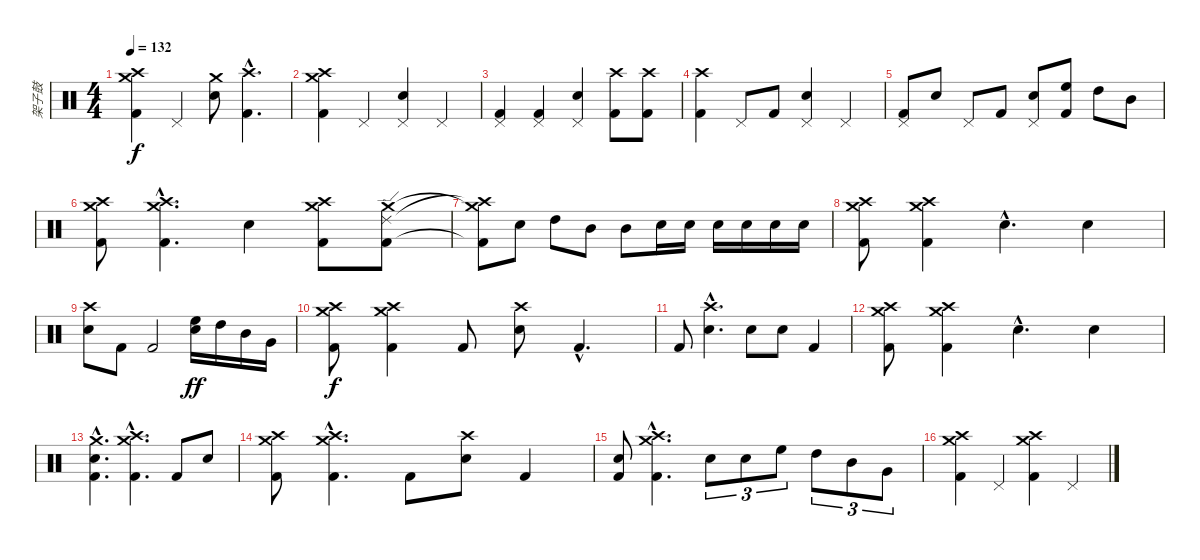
\track ("架子鼓" "架子鼓") {instrument percussion}
\staff {score}
\articulation defaults
\ts (4 4)
\tempo 132
\clef neutral
\ks c
("Crash medium (hit)" "Crash high (hit)" "Kick (hit) 2").4{dy f} "Pedal Hi-Hat (hit)".4 ("Crash medium (hit)" "Electric Snare (hit)").8 ("Crash high (hit)"{hac} "Kick (hit) 2"{hac}).4{d} |
("Crash medium (hit)" "Crash high (hit)" "Kick (hit) 2").4 "Pedal Hi-Hat (hit)".4 ("Pedal Hi-Hat (hit)" "Electric Snare (hit)").4 "Pedal Hi-Hat (hit)".4 |
("Pedal Hi-Hat (hit)" "Kick (hit) 2").4 ("Pedal Hi-Hat (hit)" "Kick (hit) 2").4 ("Pedal Hi-Hat (hit)" "Electric Snare (hit)").4 ("Crash high (hit)" "Kick (hit) 2").8 ("Crash high (hit)" "Kick (hit) 2").8 |
("Crash high (hit)" "Kick (hit) 2").4 "Pedal Hi-Hat (hit)".8 "Kick (hit) 2".8 ("Pedal Hi-Hat (hit)" "Electric Snare (hit)").4 "Pedal Hi-Hat (hit)".4 |
("Pedal Hi-Hat (hit)" "Kick (hit) 2").8 "Electric Snare (hit)".8 "Pedal Hi-Hat (hit)".8 "Kick (hit) 2".8 ("Pedal Hi-Hat (hit)" "Electric Snare (hit)").8 ("High Floor Tom (hit)" "Kick (hit) 2").8 "High Tom (hit)".8 "Mid Tom (hit)".8 |
("Crash high (hit)" "Crash medium (hit)" "Kick (hit) 2").8 ("Crash high (hit)"{hac} "Crash medium (hit)"{hac} "Kick (hit) 2"{hac}).4{d} "Electric Snare (hit)".4 ("Crash high (hit)" "Crash medium (hit)" "Kick (hit) 2").8 ("Ride (edge) 2" "Crash medium (hit)" "Kick (hit) 2").8 |
("Crash high (hit)"{t} "Crash medium (hit)"{t} "Kick (hit) 2"{t}).8 "Electric Snare (hit)".8 "High Tom (hit)".8 "Mid Tom (hit)".8 "Mid Tom (hit)".8 "Electric Snare (hit)".16 "Electric Snare (hit)".16 "Electric Snare (hit)".16 "Electric Snare (hit)".16 "Electric Snare (hit)".16 "Electric Snare (hit)".16 |
("Crash medium (hit)" "Crash high (hit)" "Kick (hit) 2").8 ("Crash medium (hit)" "Crash high (hit)" "Kick (hit) 2").4 "Electric Snare (hit)"{hac}.4{d} "Electric Snare (hit)".4 |
("Crash high (hit)" "Electric Snare (hit)").8 "Kick (hit) 2".8 "Kick (hit) 2".2 ("High Floor Tom (hit)" "Electric Snare (hit)").16{dy ff} "High Tom (hit)".16 "Mid Tom (hit)".16 "Very Low Tom (hit)".16 |
("Crash medium (hit)" "Crash high (hit)" "Kick (hit) 2").8{dy f} ("Crash medium (hit)" "Crash high (hit)" "Kick (hit) 2").4 "Kick (hit) 2".8 ("Crash high (hit)" "Electric Snare (hit)").8 "Kick (hit) 2"{hac}.4{d} |
"Kick (hit) 2".8 ("Crash high (hit)"{hac} "Electric Snare (hit)"{hac}).4{d} "Electric Snare (hit)".8 "Electric Snare (hit)".8 "Kick (hit) 2".4 |
("Crash medium (hit)" "Crash high (hit)" "Kick (hit) 2").8 ("Crash medium (hit)" "Crash high (hit)" "Kick (hit) 2").4 "Electric Snare (hit)"{hac}.4{d} "Electric Snare (hit)".4 |
("Crash medium (hit)"{hac} "Electric Snare (hit)"{hac} "Kick (hit) 2"{hac}).4{d} ("Crash medium (hit)"{hac} "Crash high (hit)"{hac} "Kick (hit) 2"{hac}).4{d} "Kick (hit) 2".8 "Electric Snare (hit)".8 |
("Crash medium (hit)" "Crash high (hit)" "Kick (hit) 2").8 ("Crash medium (hit)"{hac} "Crash high (hit)"{hac} "Kick (hit) 2"{hac}).4{d} "Kick (hit) 2".8 ("Crash high (hit)" "Electric Snare (hit)").8 "Kick (hit) 2".4 |
("Electric Snare (hit)" "Kick (hit) 2").8 ("Crash medium (hit)"{hac} "Crash high (hit)"{hac} "Kick (hit) 2"{hac}).4{d} "Electric Snare (hit)".8{tu (3 2)} "Electric Snare (hit)".8{tu (3 2)} "High Floor Tom (hit)".8{tu (3 2)} "High Tom (hit)".8{tu (3 2)} "Mid Tom (hit)".8{tu (3 2)} "Very Low Tom (hit)".8{tu (3 2)} |
("Crash medium (hit)" "Crash high (hit)" "Kick (hit) 2").4 "Pedal Hi-Hat (hit)".4 ("Crash medium (hit)" "Crash high (hit)" "Kick (hit) 2").4 "Pedal Hi-Hat (hit)".4
